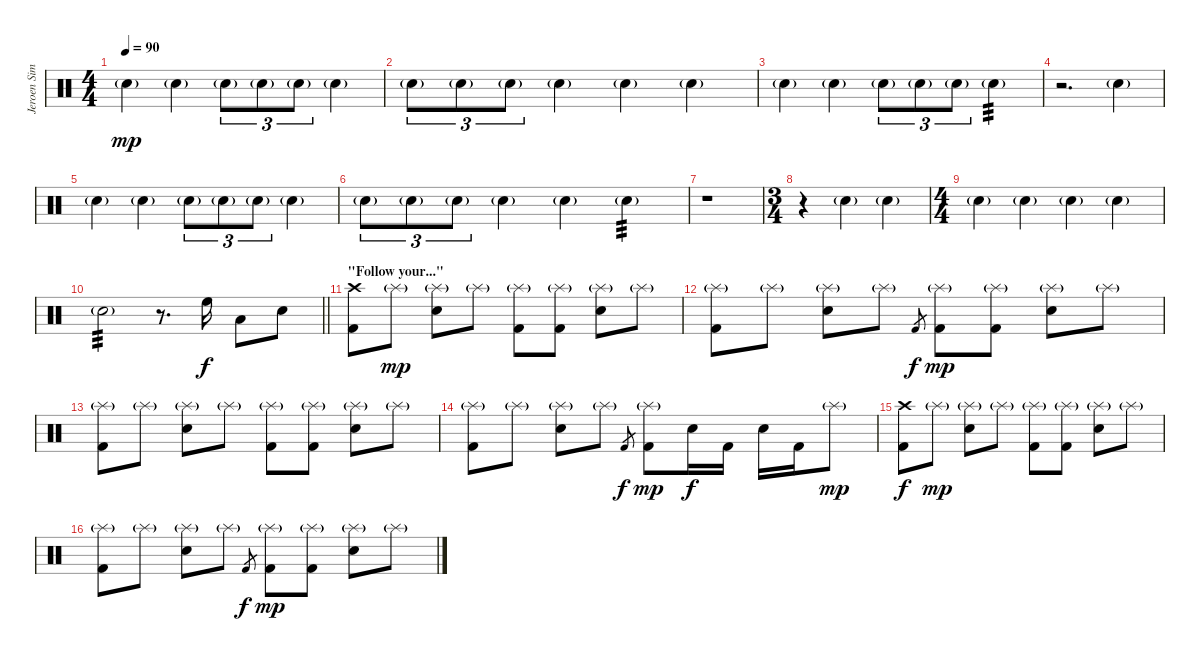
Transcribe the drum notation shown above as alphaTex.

\track ("Jeroen Simons" "Jeroen Sim") {instrument percussion}
\staff {score}
\articulation defaults
\ts (4 4)
\tempo 90
\clef neutral
\ks c "Snare (hit) 2"{g}.4{dy mp} "Snare (hit) 2"{g}.4 "Snare (hit) 2"{g}.8{tu (3 2)} "Snare (hit) 2"{g}.8{tu (3 2)} "Snare (hit) 2"{g}.8{tu (3 2)} "Snare (hit) 2"{g}.4
|
"Snare (hit) 2"{g}.8{tu (3 2)} "Snare (hit) 2"{g}.8{tu (3 2)} "Snare (hit) 2"{g}.8{tu (3 2)} "Snare (hit) 2"{g}.4 "Snare (hit) 2"{g}.4 "Snare (hit) 2"{g}.4 |
"Snare (hit) 2"{g}.4 "Snare (hit) 2"{g}.4 "Snare (hit) 2"{g}.8{tu (3 2)} "Snare (hit) 2"{g}.8{tu (3 2)} "Snare (hit) 2"{g}.8{tu (3 2)} "Snare (hit) 2"{g}.4{tp 3} |
r.2{d} "Snare (hit) 2"{g}.4 |
"Snare (hit) 2"{g}.4 "Snare (hit) 2"{g}.4 "Snare (hit) 2"{g}.8{tu (3 2)} "Snare (hit) 2"{g}.8{tu (3 2)} "Snare (hit) 2"{g}.8{tu (3 2)} "Snare (hit) 2"{g pm}.4 |
"Snare (hit) 2"{g}.8{tu (3 2)} "Snare (hit) 2"{g}.8{tu (3 2)} "Snare (hit) 2"{g}.8{tu (3 2)} "Snare (hit) 2"{g}.4 "Snare (hit) 2"{g}.4 "Snare (hit) 2"{g}.4{tp 3} |
r.1 |
\ts (3 4)
r.4 "Snare (hit) 2"{g}.4 "Snare (hit) 2"{g}.4 |
\ts (4 4)
"Snare (hit) 2"{g}.4 "Snare (hit) 2"{g}.4 "Snare (hit) 2"{g}.4 "Snare (hit) 2"{g}.4 |
\barLineRight lightlight "Snare (hit) 2"{g}.2{tp 3}
r.8{d} "High Floor Tom (hit)".16{dy f volume 13} "Low Tom (hit)".8 "Snare (hit) 2".8 |
\section ("" "\"Follow your...\"")
("Kick (hit) 2" "Crash high (hit)").8 "Splash (hit)"{g}.8{dy mp} ("Snare (hit) 2" "Splash (hit)"{g}).8 "Splash (hit)"{g}.8 ("Kick (hit) 2" "Splash (hit)"{g}).8 ("Kick (hit) 2" "Splash (hit)"{g}).8 ("Snare (hit) 2" "Splash (hit)"{g}).8 "Splash (hit)"{g}.8 |
("Kick (hit) 2" "Splash (hit)"{g}).8 "Splash (hit)"{g}.8 ("Snare (hit) 2" "Splash (hit)"{g}).8 "Splash (hit)"{g}.8 "Kick (hit) 2".8{gr dy f} ("Kick (hit) 2" "Splash (hit)"{g}).8{dy mp} ("Kick (hit) 2" "Splash (hit)"{g}).8 ("Snare (hit) 2" "Splash (hit)"{g}).8 "Splash (hit)"{g}.8 |
("Kick (hit) 2" "Splash (hit)"{g}).8 "Splash (hit)"{g}.8 ("Snare (hit) 2" "Splash (hit)"{g}).8 "Splash (hit)"{g}.8 ("Kick (hit) 2" "Splash (hit)"{g}).8 ("Kick (hit) 2" "Splash (hit)"{g}).8 ("Snare (hit) 2" "Splash (hit)"{g}).8 "Splash (hit)"{g}.8 |
("Kick (hit) 2" "Splash (hit)"{g}).8 "Splash (hit)"{g}.8 ("Snare (hit) 2" "Splash (hit)"{g}).8 "Splash (hit)"{g}.8 "Kick (hit) 2".8{gr dy f} ("Kick (hit) 2" "Splash (hit)"{g}).8{dy mp} "Snare (hit) 2".16{dy f} "Kick (hit) 2".16 "Snare (hit) 2".16 "Kick (hit) 2".16 "Splash (hit)"{g}.8{dy mp} |
("Kick (hit) 2" "Crash high (hit)").8{dy f} "Splash (hit)"{g}.8{dy mp} ("Snare (hit) 2" "Splash (hit)"{g}).8 "Splash (hit)"{g}.8 ("Kick (hit) 2" "Splash (hit)"{g}).8 ("Kick (hit) 2" "Splash (hit)"{g}).8 ("Snare (hit) 2" "Splash (hit)"{g}).8 "Splash (hit)"{g}.8 |
("Kick (hit) 2" "Splash (hit)"{g}).8 "Splash (hit)"{g}.8 ("Snare (hit) 2" "Splash (hit)"{g}).8 "Splash (hit)"{g}.8 "Kick (hit) 2".8{gr dy f} ("Kick (hit) 2" "Splash (hit)"{g}).8{dy mp} ("Kick (hit) 2" "Splash (hit)"{g}).8 ("Snare (hit) 2" "Splash (hit)"{g}).8 "Splash (hit)"{g}.8
